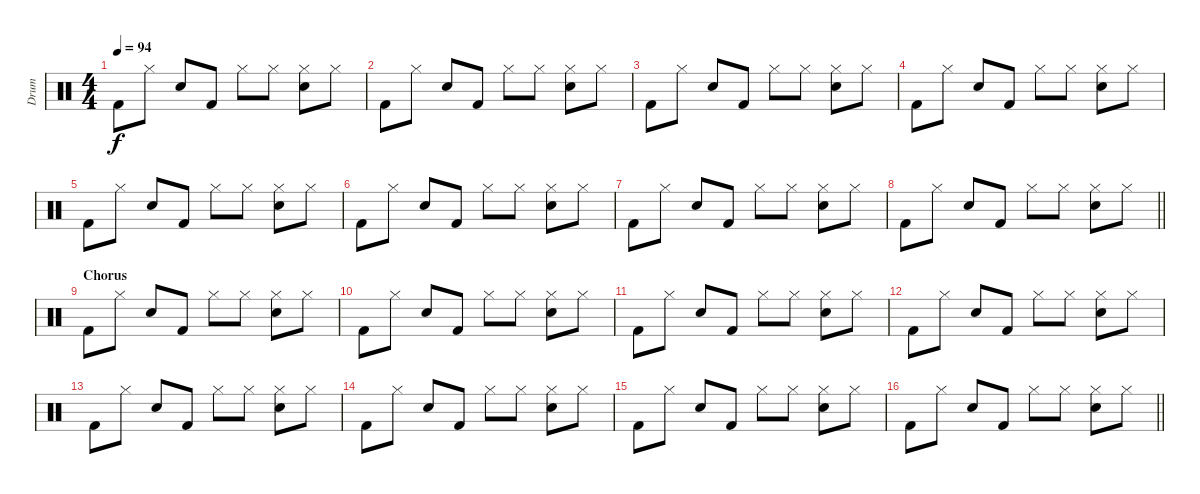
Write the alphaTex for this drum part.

\track ("Drum" "Drum") {instrument percussion}
\staff {score}
\articulation defaults
\ts (4 4)
\tempo 94
\clef neutral
\ks c "Kick (hit) 2".8{dy f} "Hi-Hat (closed)".8 "Electric Snare (hit)".8 "Kick (hit) 2".8 "Hi-Hat (closed)".8 "Hi-Hat (closed)".8
("Hi-Hat (closed)" "Electric Snare (hit)").8 "Hi-Hat (closed)".8 |
"Kick (hit) 2".8 "Hi-Hat (closed)".8 "Electric Snare (hit)".8 "Kick (hit) 2".8 "Hi-Hat (closed)".8 "Hi-Hat (closed)".8 ("Hi-Hat (closed)" "Electric Snare (hit)").8 "Hi-Hat (closed)".8 |
"Kick (hit) 2".8 "Hi-Hat (closed)".8 "Electric Snare (hit)".8 "Kick (hit) 2".8 "Hi-Hat (closed)".8 "Hi-Hat (closed)".8 ("Hi-Hat (closed)" "Electric Snare (hit)").8 "Hi-Hat (closed)".8 |
"Kick (hit) 2".8 "Hi-Hat (closed)".8 "Electric Snare (hit)".8 "Kick (hit) 2".8 "Hi-Hat (closed)".8 "Hi-Hat (closed)".8 ("Hi-Hat (closed)" "Electric Snare (hit)").8 "Hi-Hat (closed)".8 |
"Kick (hit) 2".8 "Hi-Hat (closed)".8 "Electric Snare (hit)".8 "Kick (hit) 2".8 "Hi-Hat (closed)".8 "Hi-Hat (closed)".8 ("Hi-Hat (closed)" "Electric Snare (hit)").8 "Hi-Hat (closed)".8 |
"Kick (hit) 2".8 "Hi-Hat (closed)".8 "Electric Snare (hit)".8 "Kick (hit) 2".8 "Hi-Hat (closed)".8 "Hi-Hat (closed)".8 ("Hi-Hat (closed)" "Electric Snare (hit)").8 "Hi-Hat (closed)".8 |
"Kick (hit) 2".8 "Hi-Hat (closed)".8 "Electric Snare (hit)".8 "Kick (hit) 2".8 "Hi-Hat (closed)".8 "Hi-Hat (closed)".8 ("Hi-Hat (closed)" "Electric Snare (hit)").8 "Hi-Hat (closed)".8 |
\barLineRight lightlight "Kick (hit) 2".8 "Hi-Hat (closed)".8 "Electric Snare (hit)".8 "Kick (hit) 2".8 "Hi-Hat (closed)".8 "Hi-Hat (closed)".8
("Hi-Hat (closed)" "Electric Snare (hit)").8 "Hi-Hat (closed)".8 |
\section ("" "Chorus")
"Kick (hit) 2".8 "Hi-Hat (closed)".8 "Electric Snare (hit)".8 "Kick (hit) 2".8 "Hi-Hat (closed)".8 "Hi-Hat (closed)".8 ("Hi-Hat (closed)" "Electric Snare (hit)").8 "Hi-Hat (closed)".8 |
"Kick (hit) 2".8 "Hi-Hat (closed)".8 "Electric Snare (hit)".8 "Kick (hit) 2".8 "Hi-Hat (closed)".8 "Hi-Hat (closed)".8 ("Hi-Hat (closed)" "Electric Snare (hit)").8 "Hi-Hat (closed)".8 |
"Kick (hit) 2".8 "Hi-Hat (closed)".8 "Electric Snare (hit)".8 "Kick (hit) 2".8 "Hi-Hat (closed)".8 "Hi-Hat (closed)".8 ("Hi-Hat (closed)" "Electric Snare (hit)").8 "Hi-Hat (closed)".8 |
"Kick (hit) 2".8 "Hi-Hat (closed)".8 "Electric Snare (hit)".8 "Kick (hit) 2".8 "Hi-Hat (closed)".8 "Hi-Hat (closed)".8 ("Hi-Hat (closed)" "Electric Snare (hit)").8 "Hi-Hat (closed)".8 |
"Kick (hit) 2".8 "Hi-Hat (closed)".8 "Electric Snare (hit)".8 "Kick (hit) 2".8 "Hi-Hat (closed)".8 "Hi-Hat (closed)".8 ("Hi-Hat (closed)" "Electric Snare (hit)").8 "Hi-Hat (closed)".8 |
"Kick (hit) 2".8 "Hi-Hat (closed)".8 "Electric Snare (hit)".8 "Kick (hit) 2".8 "Hi-Hat (closed)".8 "Hi-Hat (closed)".8 ("Hi-Hat (closed)" "Electric Snare (hit)").8 "Hi-Hat (closed)".8 |
"Kick (hit) 2".8 "Hi-Hat (closed)".8 "Electric Snare (hit)".8 "Kick (hit) 2".8 "Hi-Hat (closed)".8 "Hi-Hat (closed)".8 ("Hi-Hat (closed)" "Electric Snare (hit)").8 "Hi-Hat (closed)".8 |
\barLineRight lightlight "Kick (hit) 2".8 "Hi-Hat (closed)".8 "Electric Snare (hit)".8 "Kick (hit) 2".8 "Hi-Hat (closed)".8 "Hi-Hat (closed)".8
("Hi-Hat (closed)" "Electric Snare (hit)").8 "Hi-Hat (closed)".8
